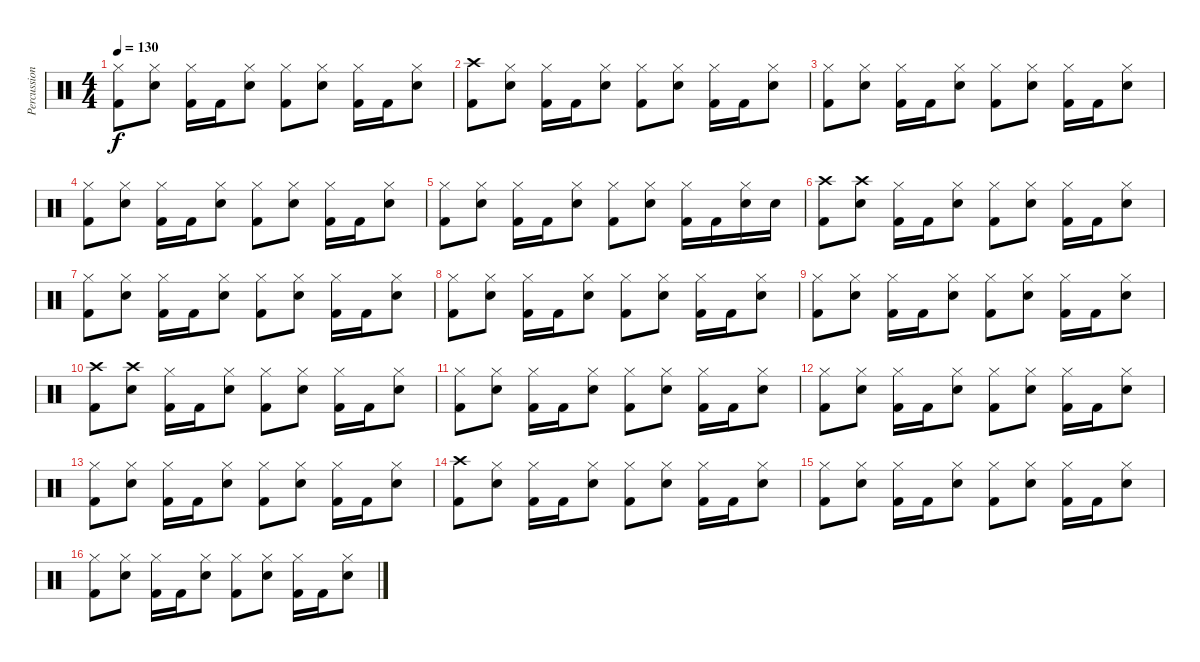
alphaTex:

\track ("Percussion" "Percussion") {instrument percussion}
\staff {score}
\articulation defaults
\ts (4 4)
\tempo 130
\clef neutral
\ks c
("Hi-Hat (closed)" "Kick (hit) 2").8{dy f} ("Hi-Hat (closed)" "Electric Snare (hit)").8 ("Hi-Hat (closed)" "Kick (hit) 2").16 "Kick (hit) 2".16 ("Hi-Hat (closed)" "Electric Snare (hit)").8 ("Hi-Hat (closed)" "Kick (hit) 2").8 ("Hi-Hat (closed)" "Electric Snare (hit)").8 ("Hi-Hat (closed)" "Kick (hit) 2").16 "Kick (hit) 2".16 ("Hi-Hat (closed)" "Electric Snare (hit)").8 |
("Crash high (hit)" "Kick (hit) 2").8 ("Hi-Hat (closed)" "Electric Snare (hit)").8 ("Hi-Hat (closed)" "Kick (hit) 2").16 "Kick (hit) 2".16 ("Hi-Hat (closed)" "Electric Snare (hit)").8 ("Hi-Hat (closed)" "Kick (hit) 2").8 ("Hi-Hat (closed)" "Electric Snare (hit)").8 ("Hi-Hat (closed)" "Kick (hit) 2").16 "Kick (hit) 2".16 ("Hi-Hat (closed)" "Electric Snare (hit)").8 |
("Hi-Hat (closed)" "Kick (hit) 2").8 ("Hi-Hat (closed)" "Electric Snare (hit)").8 ("Hi-Hat (closed)" "Kick (hit) 2").16 "Kick (hit) 2".16 ("Hi-Hat (closed)" "Electric Snare (hit)").8 ("Hi-Hat (closed)" "Kick (hit) 2").8 ("Hi-Hat (closed)" "Electric Snare (hit)").8 ("Hi-Hat (closed)" "Kick (hit) 2").16 "Kick (hit) 2".16 ("Hi-Hat (closed)" "Electric Snare (hit)").8 |
("Hi-Hat (closed)" "Kick (hit) 2").8 ("Hi-Hat (closed)" "Electric Snare (hit)").8 ("Hi-Hat (closed)" "Kick (hit) 2").16 "Kick (hit) 2".16 ("Hi-Hat (closed)" "Electric Snare (hit)").8 ("Hi-Hat (closed)" "Kick (hit) 2").8 ("Hi-Hat (closed)" "Electric Snare (hit)").8 ("Hi-Hat (closed)" "Kick (hit) 2").16 "Kick (hit) 2".16 ("Hi-Hat (closed)" "Electric Snare (hit)").8 |
("Hi-Hat (closed)" "Kick (hit) 2").8 ("Hi-Hat (closed)" "Electric Snare (hit)").8 ("Hi-Hat (closed)" "Kick (hit) 2").16 "Kick (hit) 2".16 ("Hi-Hat (closed)" "Electric Snare (hit)").8 ("Hi-Hat (closed)" "Kick (hit) 2").8 ("Hi-Hat (closed)" "Electric Snare (hit)").8 ("Hi-Hat (closed)" "Kick (hit) 2").16 "Kick (hit) 2".16 ("Hi-Hat (closed)" "Electric Snare (hit)").16 "Electric Snare (hit)".16 |
("Crash high (hit)" "Kick (hit) 2").8 ("Crash high (hit)" "Electric Snare (hit)").8 ("Hi-Hat (closed)" "Kick (hit) 2").16 "Kick (hit) 2".16 ("Hi-Hat (closed)" "Electric Snare (hit)").8 ("Hi-Hat (closed)" "Kick (hit) 2").8 ("Hi-Hat (closed)" "Electric Snare (hit)").8 ("Hi-Hat (closed)" "Kick (hit) 2").16 "Kick (hit) 2".16 ("Hi-Hat (closed)" "Electric Snare (hit)").8 |
("Hi-Hat (closed)" "Kick (hit) 2").8 ("Hi-Hat (closed)" "Electric Snare (hit)").8 ("Hi-Hat (closed)" "Kick (hit) 2").16 "Kick (hit) 2".16 ("Hi-Hat (closed)" "Electric Snare (hit)").8 ("Hi-Hat (closed)" "Kick (hit) 2").8 ("Hi-Hat (closed)" "Electric Snare (hit)").8 ("Hi-Hat (closed)" "Kick (hit) 2").16 "Kick (hit) 2".16 ("Hi-Hat (closed)" "Electric Snare (hit)").8 |
("Hi-Hat (closed)" "Kick (hit) 2").8 ("Hi-Hat (closed)" "Electric Snare (hit)").8 ("Hi-Hat (closed)" "Kick (hit) 2").16 "Kick (hit) 2".16 ("Hi-Hat (closed)" "Electric Snare (hit)").8 ("Hi-Hat (closed)" "Kick (hit) 2").8 ("Hi-Hat (closed)" "Electric Snare (hit)").8 ("Hi-Hat (closed)" "Kick (hit) 2").16 "Kick (hit) 2".16 ("Hi-Hat (closed)" "Electric Snare (hit)").8 |
("Hi-Hat (closed)" "Kick (hit) 2").8 ("Hi-Hat (closed)" "Electric Snare (hit)").8 ("Hi-Hat (closed)" "Kick (hit) 2").16 "Kick (hit) 2".16 ("Hi-Hat (closed)" "Electric Snare (hit)").8 ("Hi-Hat (closed)" "Kick (hit) 2").8 ("Hi-Hat (closed)" "Electric Snare (hit)").8 ("Hi-Hat (closed)" "Kick (hit) 2").16 "Kick (hit) 2".16 ("Hi-Hat (closed)" "Electric Snare (hit)").8 |
("Crash high (hit)" "Kick (hit) 2").8 ("Crash high (hit)" "Electric Snare (hit)").8 ("Hi-Hat (closed)" "Kick (hit) 2").16 "Kick (hit) 2".16 ("Hi-Hat (closed)" "Electric Snare (hit)").8 ("Hi-Hat (closed)" "Kick (hit) 2").8 ("Hi-Hat (closed)" "Electric Snare (hit)").8 ("Hi-Hat (closed)" "Kick (hit) 2").16 "Kick (hit) 2".16 ("Hi-Hat (closed)" "Electric Snare (hit)").8 |
("Hi-Hat (closed)" "Kick (hit) 2").8 ("Hi-Hat (closed)" "Electric Snare (hit)").8 ("Hi-Hat (closed)" "Kick (hit) 2").16 "Kick (hit) 2".16 ("Hi-Hat (closed)" "Electric Snare (hit)").8 ("Hi-Hat (closed)" "Kick (hit) 2").8 ("Hi-Hat (closed)" "Electric Snare (hit)").8 ("Hi-Hat (closed)" "Kick (hit) 2").16 "Kick (hit) 2".16 ("Hi-Hat (closed)" "Electric Snare (hit)").8 |
("Hi-Hat (closed)" "Kick (hit) 2").8 ("Hi-Hat (closed)" "Electric Snare (hit)").8 ("Hi-Hat (closed)" "Kick (hit) 2").16 "Kick (hit) 2".16 ("Hi-Hat (closed)" "Electric Snare (hit)").8 ("Hi-Hat (closed)" "Kick (hit) 2").8 ("Hi-Hat (closed)" "Electric Snare (hit)").8 ("Hi-Hat (closed)" "Kick (hit) 2").16 "Kick (hit) 2".16 ("Hi-Hat (closed)" "Electric Snare (hit)").8 |
("Hi-Hat (closed)" "Kick (hit) 2").8 ("Hi-Hat (closed)" "Electric Snare (hit)").8 ("Hi-Hat (closed)" "Kick (hit) 2").16 "Kick (hit) 2".16 ("Hi-Hat (closed)" "Electric Snare (hit)").8 ("Hi-Hat (closed)" "Kick (hit) 2").8 ("Hi-Hat (closed)" "Electric Snare (hit)").8 ("Hi-Hat (closed)" "Kick (hit) 2").16 "Kick (hit) 2".16 ("Hi-Hat (closed)" "Electric Snare (hit)").8 |
("Crash high (hit)" "Kick (hit) 2").8 ("Hi-Hat (closed)" "Electric Snare (hit)").8 ("Hi-Hat (closed)" "Kick (hit) 2").16 "Kick (hit) 2".16 ("Hi-Hat (closed)" "Electric Snare (hit)").8 ("Hi-Hat (closed)" "Kick (hit) 2").8 ("Hi-Hat (closed)" "Electric Snare (hit)").8 ("Hi-Hat (closed)" "Kick (hit) 2").16 "Kick (hit) 2".16 ("Hi-Hat (closed)" "Electric Snare (hit)").8 |
("Hi-Hat (closed)" "Kick (hit) 2").8 ("Hi-Hat (closed)" "Electric Snare (hit)").8 ("Hi-Hat (closed)" "Kick (hit) 2").16 "Kick (hit) 2".16 ("Hi-Hat (closed)" "Electric Snare (hit)").8 ("Hi-Hat (closed)" "Kick (hit) 2").8 ("Hi-Hat (closed)" "Electric Snare (hit)").8 ("Hi-Hat (closed)" "Kick (hit) 2").16 "Kick (hit) 2".16 ("Hi-Hat (closed)" "Electric Snare (hit)").8 |
("Hi-Hat (closed)" "Kick (hit) 2").8 ("Hi-Hat (closed)" "Electric Snare (hit)").8 ("Hi-Hat (closed)" "Kick (hit) 2").16 "Kick (hit) 2".16 ("Hi-Hat (closed)" "Electric Snare (hit)").8 ("Hi-Hat (closed)" "Kick (hit) 2").8 ("Hi-Hat (closed)" "Electric Snare (hit)").8 ("Hi-Hat (closed)" "Kick (hit) 2").16 "Kick (hit) 2".16 ("Hi-Hat (closed)" "Electric Snare (hit)").8
